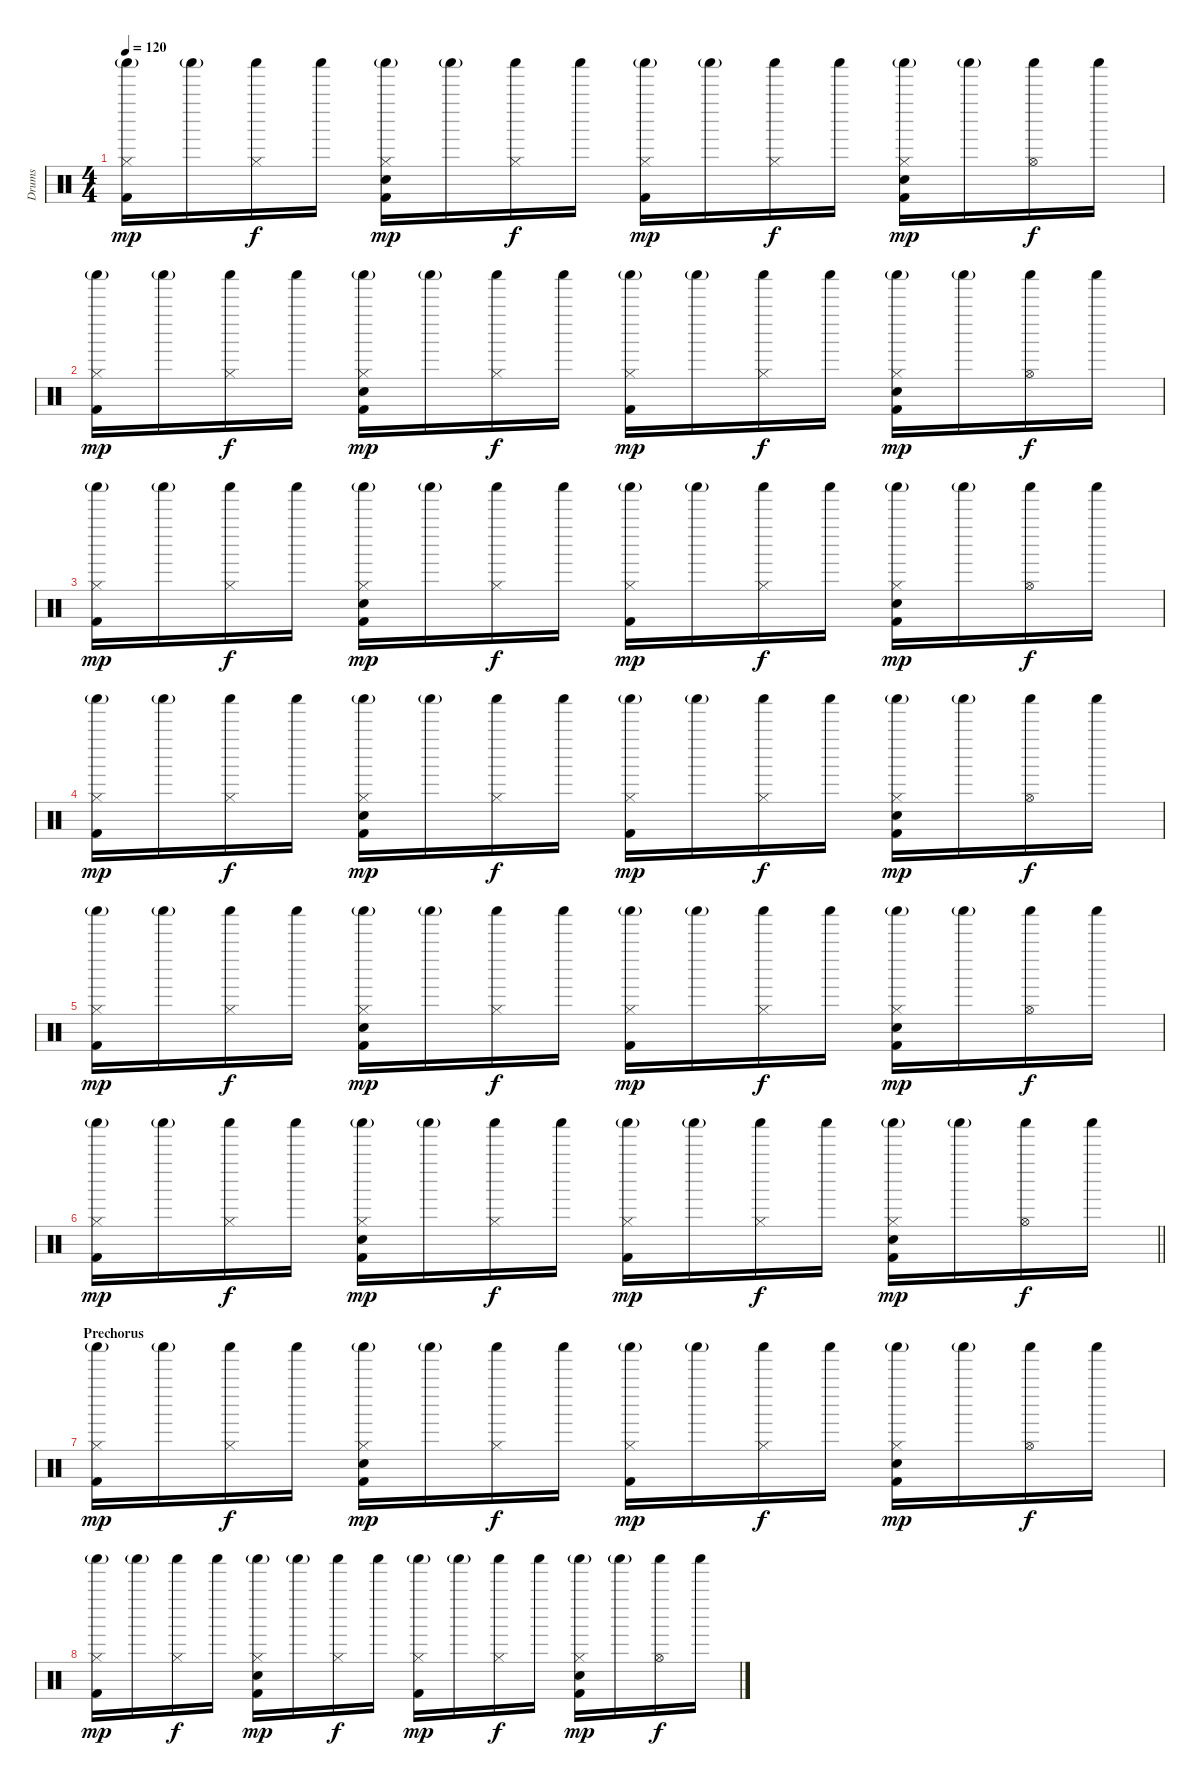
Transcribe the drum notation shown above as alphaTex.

\track ("Drums" "Drums") {instrument percussion}
\staff {score}
\articulation defaults
\ts (4 4)
\tempo 120
\clef neutral
\ks c
("Hi-Hat (closed)" "Shaker (hit)"{g} "Kick (hit) 2").16{dy mp} "Shaker (hit)"{g}.16 ("Hi-Hat (closed)" "Shaker (hit)").16{dy f} "Shaker (hit)".16 ("Hi-Hat (closed)" "Shaker (hit)"{g} "Electric Snare (hit)" "Kick (hit) 2").16{dy mp} "Shaker (hit)"{g}.16 ("Hi-Hat (closed)" "Shaker (hit)").16{dy f} "Shaker (hit)".16 ("Hi-Hat (closed)" "Shaker (hit)"{g} "Kick (hit) 2").16{dy mp} "Shaker (hit)"{g}.16 ("Hi-Hat (closed)" "Shaker (hit)").16{dy f} "Shaker (hit)".16 ("Hi-Hat (closed)" "Shaker (hit)"{g} "Electric Snare (hit)" "Kick (hit) 2").16{dy mp} "Shaker (hit)"{g}.16 ("Hi-Hat (open)" "Shaker (hit)").16{dy f} "Shaker (hit)".16 |
("Hi-Hat (closed)" "Shaker (hit)"{g} "Kick (hit) 2").16{dy mp} "Shaker (hit)"{g}.16 ("Hi-Hat (closed)" "Shaker (hit)").16{dy f} "Shaker (hit)".16 ("Hi-Hat (closed)" "Shaker (hit)"{g} "Electric Snare (hit)" "Kick (hit) 2").16{dy mp} "Shaker (hit)"{g}.16 ("Hi-Hat (closed)" "Shaker (hit)").16{dy f} "Shaker (hit)".16 ("Hi-Hat (closed)" "Shaker (hit)"{g} "Kick (hit) 2").16{dy mp} "Shaker (hit)"{g}.16 ("Hi-Hat (closed)" "Shaker (hit)").16{dy f} "Shaker (hit)".16 ("Hi-Hat (closed)" "Shaker (hit)"{g} "Electric Snare (hit)" "Kick (hit) 2").16{dy mp} "Shaker (hit)"{g}.16 ("Hi-Hat (open)" "Shaker (hit)").16{dy f} "Shaker (hit)".16 |
("Hi-Hat (closed)" "Shaker (hit)"{g} "Kick (hit) 2").16{dy mp} "Shaker (hit)"{g}.16 ("Hi-Hat (closed)" "Shaker (hit)").16{dy f} "Shaker (hit)".16 ("Hi-Hat (closed)" "Shaker (hit)"{g} "Electric Snare (hit)" "Kick (hit) 2").16{dy mp} "Shaker (hit)"{g}.16 ("Hi-Hat (closed)" "Shaker (hit)").16{dy f} "Shaker (hit)".16 ("Hi-Hat (closed)" "Shaker (hit)"{g} "Kick (hit) 2").16{dy mp} "Shaker (hit)"{g}.16 ("Hi-Hat (closed)" "Shaker (hit)").16{dy f} "Shaker (hit)".16 ("Hi-Hat (closed)" "Shaker (hit)"{g} "Electric Snare (hit)" "Kick (hit) 2").16{dy mp} "Shaker (hit)"{g}.16 ("Hi-Hat (open)" "Shaker (hit)").16{dy f} "Shaker (hit)".16 |
("Hi-Hat (closed)" "Shaker (hit)"{g} "Kick (hit) 2").16{dy mp} "Shaker (hit)"{g}.16 ("Hi-Hat (closed)" "Shaker (hit)").16{dy f} "Shaker (hit)".16 ("Hi-Hat (closed)" "Shaker (hit)"{g} "Electric Snare (hit)" "Kick (hit) 2").16{dy mp} "Shaker (hit)"{g}.16 ("Hi-Hat (closed)" "Shaker (hit)").16{dy f} "Shaker (hit)".16 ("Hi-Hat (closed)" "Shaker (hit)"{g} "Kick (hit) 2").16{dy mp} "Shaker (hit)"{g}.16 ("Hi-Hat (closed)" "Shaker (hit)").16{dy f} "Shaker (hit)".16 ("Hi-Hat (closed)" "Shaker (hit)"{g} "Electric Snare (hit)" "Kick (hit) 2").16{dy mp} "Shaker (hit)"{g}.16 ("Hi-Hat (open)" "Shaker (hit)").16{dy f} "Shaker (hit)".16 |
("Hi-Hat (closed)" "Shaker (hit)"{g} "Kick (hit) 2").16{dy mp} "Shaker (hit)"{g}.16 ("Hi-Hat (closed)" "Shaker (hit)").16{dy f} "Shaker (hit)".16 ("Hi-Hat (closed)" "Shaker (hit)"{g} "Electric Snare (hit)" "Kick (hit) 2").16{dy mp} "Shaker (hit)"{g}.16 ("Hi-Hat (closed)" "Shaker (hit)").16{dy f} "Shaker (hit)".16 ("Hi-Hat (closed)" "Shaker (hit)"{g} "Kick (hit) 2").16{dy mp} "Shaker (hit)"{g}.16 ("Hi-Hat (closed)" "Shaker (hit)").16{dy f} "Shaker (hit)".16 ("Hi-Hat (closed)" "Shaker (hit)"{g} "Electric Snare (hit)" "Kick (hit) 2").16{dy mp} "Shaker (hit)"{g}.16 ("Hi-Hat (open)" "Shaker (hit)").16{dy f} "Shaker (hit)".16 |
\barLineRight lightlight
("Hi-Hat (closed)" "Shaker (hit)"{g} "Kick (hit) 2").16{dy mp} "Shaker (hit)"{g}.16 ("Hi-Hat (closed)" "Shaker (hit)").16{dy f} "Shaker (hit)".16 ("Hi-Hat (closed)" "Shaker (hit)"{g} "Electric Snare (hit)" "Kick (hit) 2").16{dy mp} "Shaker (hit)"{g}.16 ("Hi-Hat (closed)" "Shaker (hit)").16{dy f} "Shaker (hit)".16 ("Hi-Hat (closed)" "Shaker (hit)"{g} "Kick (hit) 2").16{dy mp} "Shaker (hit)"{g}.16 ("Hi-Hat (closed)" "Shaker (hit)").16{dy f} "Shaker (hit)".16 ("Hi-Hat (closed)" "Shaker (hit)"{g} "Electric Snare (hit)" "Kick (hit) 2").16{dy mp} "Shaker (hit)"{g}.16 ("Hi-Hat (open)" "Shaker (hit)").16{dy f} "Shaker (hit)".16 |
\section ("" "Prechorus")
("Hi-Hat (closed)" "Shaker (hit)"{g} "Kick (hit) 2").16{dy mp} "Shaker (hit)"{g}.16 ("Hi-Hat (closed)" "Shaker (hit)").16{dy f} "Shaker (hit)".16 ("Hi-Hat (closed)" "Shaker (hit)"{g} "Electric Snare (hit)" "Kick (hit) 2").16{dy mp} "Shaker (hit)"{g}.16 ("Hi-Hat (closed)" "Shaker (hit)").16{dy f} "Shaker (hit)".16 ("Hi-Hat (closed)" "Shaker (hit)"{g} "Kick (hit) 2").16{dy mp} "Shaker (hit)"{g}.16 ("Hi-Hat (closed)" "Shaker (hit)").16{dy f} "Shaker (hit)".16 ("Hi-Hat (closed)" "Shaker (hit)"{g} "Electric Snare (hit)" "Kick (hit) 2").16{dy mp} "Shaker (hit)"{g}.16 ("Hi-Hat (open)" "Shaker (hit)").16{dy f} "Shaker (hit)".16 |
("Hi-Hat (closed)" "Shaker (hit)"{g} "Kick (hit) 2").16{dy mp} "Shaker (hit)"{g}.16 ("Hi-Hat (closed)" "Shaker (hit)").16{dy f} "Shaker (hit)".16 ("Hi-Hat (closed)" "Shaker (hit)"{g} "Electric Snare (hit)" "Kick (hit) 2").16{dy mp} "Shaker (hit)"{g}.16 ("Hi-Hat (closed)" "Shaker (hit)").16{dy f} "Shaker (hit)".16 ("Hi-Hat (closed)" "Shaker (hit)"{g} "Kick (hit) 2").16{dy mp} "Shaker (hit)"{g}.16 ("Hi-Hat (closed)" "Shaker (hit)").16{dy f} "Shaker (hit)".16 ("Hi-Hat (closed)" "Shaker (hit)"{g} "Electric Snare (hit)" "Kick (hit) 2").16{dy mp} "Shaker (hit)"{g}.16 ("Hi-Hat (open)" "Shaker (hit)").16{dy f} "Shaker (hit)".16
